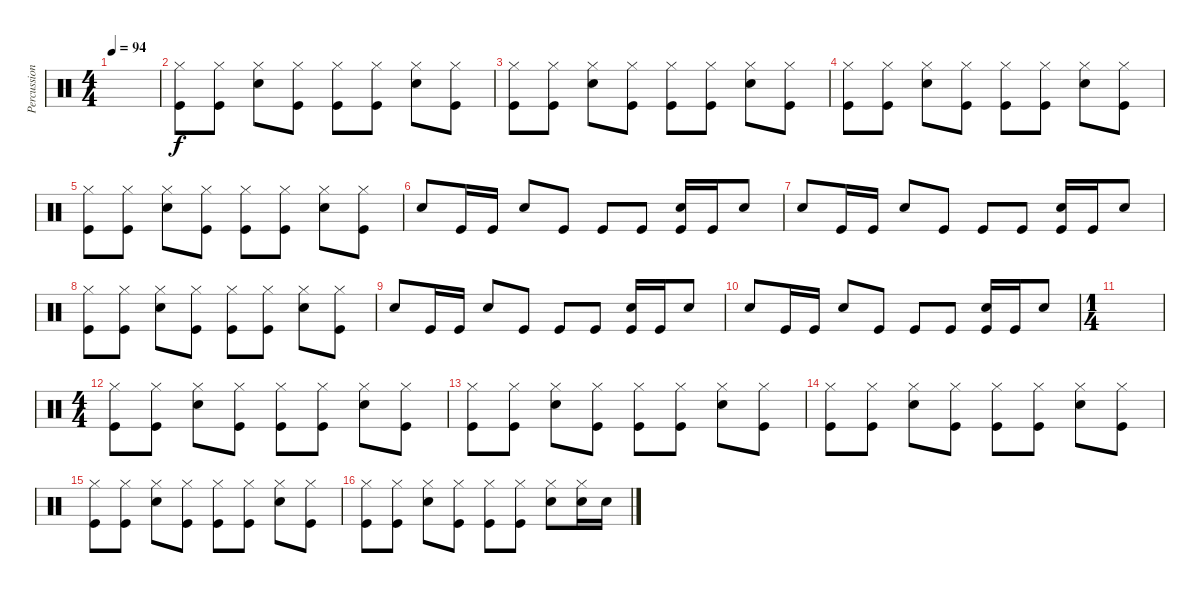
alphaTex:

\track ("Percussions" "Percussion") {instrument percussion}
\staff {score}
\articulation defaults
\ts (4 4)
\tempo 94
\clef neutral
\ks c
|
("Hi-Hat (closed)" "Kick (hit)").8 ("Hi-Hat (closed)" "Kick (hit)").8 ("Hi-Hat (closed)" "Electric Snare (hit)").8 ("Hi-Hat (closed)" "Kick (hit)").8 ("Hi-Hat (closed)" "Kick (hit)").8 ("Hi-Hat (closed)" "Kick (hit)").8 ("Hi-Hat (closed)" "Electric Snare (hit)").8 ("Hi-Hat (closed)" "Kick (hit)").8 |
("Hi-Hat (closed)" "Kick (hit)").8 ("Hi-Hat (closed)" "Kick (hit)").8 ("Hi-Hat (closed)" "Electric Snare (hit)").8 ("Hi-Hat (closed)" "Kick (hit)").8 ("Hi-Hat (closed)" "Kick (hit)").8 ("Hi-Hat (closed)" "Kick (hit)").8 ("Hi-Hat (closed)" "Electric Snare (hit)").8 ("Hi-Hat (closed)" "Kick (hit)").8 |
("Hi-Hat (closed)" "Kick (hit)").8 ("Hi-Hat (closed)" "Kick (hit)").8 ("Hi-Hat (closed)" "Electric Snare (hit)").8 ("Hi-Hat (closed)" "Kick (hit)").8 ("Hi-Hat (closed)" "Kick (hit)").8 ("Hi-Hat (closed)" "Kick (hit)").8 ("Hi-Hat (closed)" "Electric Snare (hit)").8 ("Hi-Hat (closed)" "Kick (hit)").8 |
("Hi-Hat (closed)" "Kick (hit)").8 ("Hi-Hat (closed)" "Kick (hit)").8 ("Hi-Hat (closed)" "Electric Snare (hit)").8 ("Hi-Hat (closed)" "Kick (hit)").8 ("Hi-Hat (closed)" "Kick (hit)").8 ("Hi-Hat (closed)" "Kick (hit)").8 ("Hi-Hat (closed)" "Electric Snare (hit)").8 ("Hi-Hat (closed)" "Kick (hit)").8 |
"Electric Snare (hit)".8 "Kick (hit)".16 "Kick (hit)".16 "Electric Snare (hit)".8 "Kick (hit)".8 "Kick (hit)".8 "Kick (hit)".8 ("Electric Snare (hit)" "Kick (hit)").16 "Kick (hit)".16 "Electric Snare (hit)".8 |
"Electric Snare (hit)".8 "Kick (hit)".16 "Kick (hit)".16 "Electric Snare (hit)".8 "Kick (hit)".8 "Kick (hit)".8 "Kick (hit)".8 ("Electric Snare (hit)" "Kick (hit)").16 "Kick (hit)".16 "Electric Snare (hit)".8 |
("Hi-Hat (closed)" "Kick (hit)").8 ("Hi-Hat (closed)" "Kick (hit)").8 ("Hi-Hat (closed)" "Electric Snare (hit)").8 ("Hi-Hat (closed)" "Kick (hit)").8 ("Hi-Hat (closed)" "Kick (hit)").8 ("Hi-Hat (closed)" "Kick (hit)").8 ("Hi-Hat (closed)" "Electric Snare (hit)").8 ("Hi-Hat (closed)" "Kick (hit)").8 |
"Electric Snare (hit)".8 "Kick (hit)".16 "Kick (hit)".16 "Electric Snare (hit)".8 "Kick (hit)".8 "Kick (hit)".8 "Kick (hit)".8 ("Electric Snare (hit)" "Kick (hit)").16 "Kick (hit)".16 "Electric Snare (hit)".8 |
"Electric Snare (hit)".8 "Kick (hit)".16 "Kick (hit)".16 "Electric Snare (hit)".8 "Kick (hit)".8 "Kick (hit)".8 "Kick (hit)".8 ("Electric Snare (hit)" "Kick (hit)").16 "Kick (hit)".16 "Electric Snare (hit)".8 |
\ts (1 4)
|
\ts (4 4)
("Hi-Hat (closed)" "Kick (hit)").8 ("Hi-Hat (closed)" "Kick (hit)").8 ("Hi-Hat (closed)" "Electric Snare (hit)").8 ("Hi-Hat (closed)" "Kick (hit)").8 ("Hi-Hat (closed)" "Kick (hit)").8 ("Hi-Hat (closed)" "Kick (hit)").8 ("Hi-Hat (closed)" "Electric Snare (hit)").8 ("Hi-Hat (closed)" "Kick (hit)").8 |
("Hi-Hat (closed)" "Kick (hit)").8 ("Hi-Hat (closed)" "Kick (hit)").8 ("Hi-Hat (closed)" "Electric Snare (hit)").8 ("Hi-Hat (closed)" "Kick (hit)").8 ("Hi-Hat (closed)" "Kick (hit)").8 ("Hi-Hat (closed)" "Kick (hit)").8 ("Hi-Hat (closed)" "Electric Snare (hit)").8 ("Hi-Hat (closed)" "Kick (hit)").8 |
("Hi-Hat (closed)" "Kick (hit)").8 ("Hi-Hat (closed)" "Kick (hit)").8 ("Hi-Hat (closed)" "Electric Snare (hit)").8 ("Hi-Hat (closed)" "Kick (hit)").8 ("Hi-Hat (closed)" "Kick (hit)").8 ("Hi-Hat (closed)" "Kick (hit)").8 ("Hi-Hat (closed)" "Electric Snare (hit)").8 ("Hi-Hat (closed)" "Kick (hit)").8 |
("Hi-Hat (closed)" "Kick (hit)").8 ("Hi-Hat (closed)" "Kick (hit)").8 ("Hi-Hat (closed)" "Electric Snare (hit)").8 ("Hi-Hat (closed)" "Kick (hit)").8 ("Hi-Hat (closed)" "Kick (hit)").8 ("Hi-Hat (closed)" "Kick (hit)").8 ("Hi-Hat (closed)" "Electric Snare (hit)").8 ("Hi-Hat (closed)" "Kick (hit)").8 |
("Hi-Hat (closed)" "Kick (hit)").8 ("Hi-Hat (closed)" "Kick (hit)").8 ("Hi-Hat (closed)" "Electric Snare (hit)").8 ("Hi-Hat (closed)" "Kick (hit)").8 ("Hi-Hat (closed)" "Kick (hit)").8 ("Hi-Hat (closed)" "Kick (hit)").8 ("Hi-Hat (closed)" "Electric Snare (hit)").8 ("Hi-Hat (closed)" "Electric Snare (hit)").16 "Electric Snare (hit)".16
